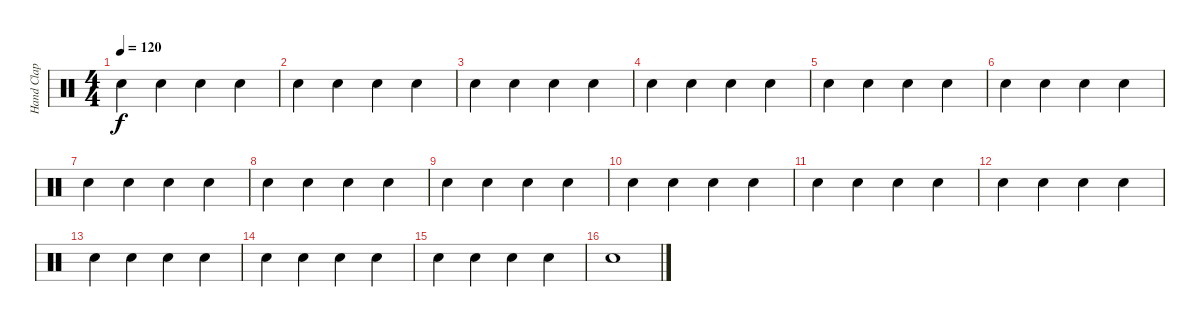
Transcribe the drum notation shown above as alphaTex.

\track ("Hand Clap" "Hand Clap") {instrument percussion}
\staff {score}
\articulation defaults
\ts (4 4)
\tempo 120
\clef neutral
\ks c "Hand Clap (hit)".4{dy f} "Hand Clap (hit)".4 "Hand Clap (hit)".4 "Hand Clap (hit)".4
|
"Hand Clap (hit)".4 "Hand Clap (hit)".4 "Hand Clap (hit)".4 "Hand Clap (hit)".4 |
"Hand Clap (hit)".4 "Hand Clap (hit)".4 "Hand Clap (hit)".4 "Hand Clap (hit)".4 |
"Hand Clap (hit)".4 "Hand Clap (hit)".4 "Hand Clap (hit)".4 "Hand Clap (hit)".4 |
"Hand Clap (hit)".4 "Hand Clap (hit)".4 "Hand Clap (hit)".4 "Hand Clap (hit)".4 |
"Hand Clap (hit)".4 "Hand Clap (hit)".4 "Hand Clap (hit)".4 "Hand Clap (hit)".4 |
"Hand Clap (hit)".4 "Hand Clap (hit)".4 "Hand Clap (hit)".4 "Hand Clap (hit)".4 |
"Hand Clap (hit)".4 "Hand Clap (hit)".4 "Hand Clap (hit)".4 "Hand Clap (hit)".4 |
"Hand Clap (hit)".4 "Hand Clap (hit)".4 "Hand Clap (hit)".4 "Hand Clap (hit)".4 |
"Hand Clap (hit)".4 "Hand Clap (hit)".4 "Hand Clap (hit)".4 "Hand Clap (hit)".4 |
"Hand Clap (hit)".4 "Hand Clap (hit)".4 "Hand Clap (hit)".4 "Hand Clap (hit)".4 |
"Hand Clap (hit)".4 "Hand Clap (hit)".4 "Hand Clap (hit)".4 "Hand Clap (hit)".4 |
"Hand Clap (hit)".4 "Hand Clap (hit)".4 "Hand Clap (hit)".4 "Hand Clap (hit)".4 |
"Hand Clap (hit)".4 "Hand Clap (hit)".4 "Hand Clap (hit)".4 "Hand Clap (hit)".4 |
"Hand Clap (hit)".4 "Hand Clap (hit)".4 "Hand Clap (hit)".4 "Hand Clap (hit)".4 |
"Hand Clap (hit)".1
